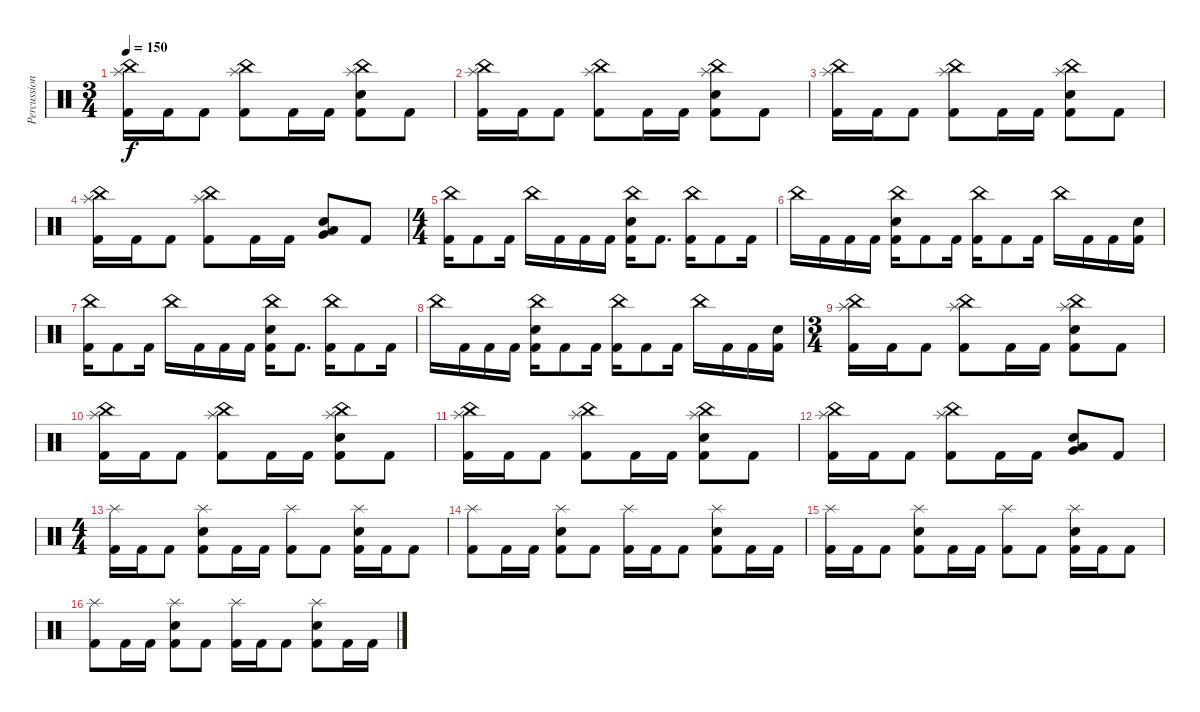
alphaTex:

\track ("Percussion" "Percussion") {instrument percussion}
\staff {score}
\articulation defaults
\ts (3 4)
\tempo 150
\clef neutral
\ks c
("China (hit)" "Splash (hit)" "Kick (hit) 2").16{dy f} "Kick (hit) 2".16 "Kick (hit) 2".8 ("China (hit)" "Splash (hit)" "Kick (hit) 2").8 "Kick (hit) 2".16 "Kick (hit) 2".16 ("China (hit)" "Splash (hit)" "Electric Snare (hit)" "Kick (hit) 2").8 "Kick (hit) 2".8 |
("China (hit)" "Splash (hit)" "Kick (hit) 2").16 "Kick (hit) 2".16 "Kick (hit) 2".8 ("China (hit)" "Splash (hit)" "Kick (hit) 2").8 "Kick (hit) 2".16 "Kick (hit) 2".16 ("China (hit)" "Splash (hit)" "Electric Snare (hit)" "Kick (hit) 2").8 "Kick (hit) 2".8 |
("China (hit)" "Splash (hit)" "Kick (hit) 2").16 "Kick (hit) 2".16 "Kick (hit) 2".8 ("China (hit)" "Splash (hit)" "Kick (hit) 2").8 "Kick (hit) 2".16 "Kick (hit) 2".16 ("China (hit)" "Splash (hit)" "Electric Snare (hit)" "Kick (hit) 2").8 "Kick (hit) 2".8 |
("China (hit)" "Splash (hit)" "Kick (hit) 2").16 "Kick (hit) 2".16 "Kick (hit) 2".8 ("China (hit)" "Splash (hit)" "Kick (hit) 2").8 "Kick (hit) 2".16 "Kick (hit) 2".16 ("Low Floor Tom (hit)" "Very Low Tom (hit)" "Electric Snare (hit)").8 "Kick (hit) 2".8 |
\ts (4 4)
("China (hit)" "Kick (hit) 2").16 "Kick (hit) 2".8 "Kick (hit) 2".16 "China (hit)".16 "Kick (hit) 2".16 "Kick (hit) 2".16 "Kick (hit) 2".16 ("China (hit)" "Electric Snare (hit)" "Kick (hit) 2").16 "Kick (hit) 2".8{d} ("China (hit)" "Kick (hit) 2").16 "Kick (hit) 2".8 "Kick (hit) 2".16 |
"China (hit)".16 "Kick (hit) 2".16 "Kick (hit) 2".16 "Kick (hit) 2".16 ("China (hit)" "Electric Snare (hit)" "Kick (hit) 2").16 "Kick (hit) 2".8 "Kick (hit) 2".16 ("China (hit)" "Kick (hit) 2").16 "Kick (hit) 2".8 "Kick (hit) 2".16 "China (hit)".16 "Kick (hit) 2".16 "Kick (hit) 2".16 ("Electric Snare (hit)" "Kick (hit) 2").16 |
("China (hit)" "Kick (hit) 2").16 "Kick (hit) 2".8 "Kick (hit) 2".16 "China (hit)".16 "Kick (hit) 2".16 "Kick (hit) 2".16 "Kick (hit) 2".16 ("China (hit)" "Electric Snare (hit)" "Kick (hit) 2").16 "Kick (hit) 2".8{d} ("China (hit)" "Kick (hit) 2").16 "Kick (hit) 2".8 "Kick (hit) 2".16 |
"China (hit)".16 "Kick (hit) 2".16 "Kick (hit) 2".16 "Kick (hit) 2".16 ("China (hit)" "Electric Snare (hit)" "Kick (hit) 2").16 "Kick (hit) 2".8 "Kick (hit) 2".16 ("China (hit)" "Kick (hit) 2").16 "Kick (hit) 2".8 "Kick (hit) 2".16 "China (hit)".16 "Kick (hit) 2".16 "Kick (hit) 2".16 ("Electric Snare (hit)" "Kick (hit) 2").16 |
\ts (3 4)
("China (hit)" "Splash (hit)" "Kick (hit) 2").16 "Kick (hit) 2".16 "Kick (hit) 2".8 ("China (hit)" "Splash (hit)" "Kick (hit) 2").8 "Kick (hit) 2".16 "Kick (hit) 2".16 ("China (hit)" "Splash (hit)" "Electric Snare (hit)" "Kick (hit) 2").8 "Kick (hit) 2".8 |
("China (hit)" "Splash (hit)" "Kick (hit) 2").16 "Kick (hit) 2".16 "Kick (hit) 2".8 ("China (hit)" "Splash (hit)" "Kick (hit) 2").8 "Kick (hit) 2".16 "Kick (hit) 2".16 ("China (hit)" "Splash (hit)" "Electric Snare (hit)" "Kick (hit) 2").8 "Kick (hit) 2".8 |
("China (hit)" "Splash (hit)" "Kick (hit) 2").16 "Kick (hit) 2".16 "Kick (hit) 2".8 ("China (hit)" "Splash (hit)" "Kick (hit) 2").8 "Kick (hit) 2".16 "Kick (hit) 2".16 ("China (hit)" "Splash (hit)" "Electric Snare (hit)" "Kick (hit) 2").8 "Kick (hit) 2".8 |
("China (hit)" "Splash (hit)" "Kick (hit) 2").16 "Kick (hit) 2".16 "Kick (hit) 2".8 ("China (hit)" "Splash (hit)" "Kick (hit) 2").8 "Kick (hit) 2".16 "Kick (hit) 2".16 ("Low Floor Tom (hit)" "Very Low Tom (hit)" "Electric Snare (hit)").8 "Kick (hit) 2".8 |
\ts (4 4)
("Splash (hit)" "Kick (hit) 2").16 "Kick (hit) 2".16 "Kick (hit) 2".8 ("Splash (hit)" "Electric Snare (hit)" "Kick (hit) 2").8 "Kick (hit) 2".16 "Kick (hit) 2".16 ("Splash (hit)" "Kick (hit) 2").8 "Kick (hit) 2".8 ("Splash (hit)" "Electric Snare (hit)" "Kick (hit) 2").16 "Kick (hit) 2".16 "Kick (hit) 2".8 |
("Splash (hit)" "Kick (hit) 2").8 "Kick (hit) 2".16 "Kick (hit) 2".16 ("Splash (hit)" "Electric Snare (hit)" "Kick (hit) 2").8 "Kick (hit) 2".8 ("Splash (hit)" "Kick (hit) 2").16 "Kick (hit) 2".16 "Kick (hit) 2".8 ("Splash (hit)" "Electric Snare (hit)" "Kick (hit) 2").8 "Kick (hit) 2".16 "Kick (hit) 2".16 |
("Splash (hit)" "Kick (hit) 2").16 "Kick (hit) 2".16 "Kick (hit) 2".8 ("Splash (hit)" "Electric Snare (hit)" "Kick (hit) 2").8 "Kick (hit) 2".16 "Kick (hit) 2".16 ("Splash (hit)" "Kick (hit) 2").8 "Kick (hit) 2".8 ("Splash (hit)" "Electric Snare (hit)" "Kick (hit) 2").16 "Kick (hit) 2".16 "Kick (hit) 2".8 |
("Splash (hit)" "Kick (hit) 2").8 "Kick (hit) 2".16 "Kick (hit) 2".16 ("Splash (hit)" "Electric Snare (hit)" "Kick (hit) 2").8 "Kick (hit) 2".8 ("Splash (hit)" "Kick (hit) 2").16 "Kick (hit) 2".16 "Kick (hit) 2".8 ("Splash (hit)" "Electric Snare (hit)" "Kick (hit) 2").8 "Kick (hit) 2".16 "Kick (hit) 2".16
